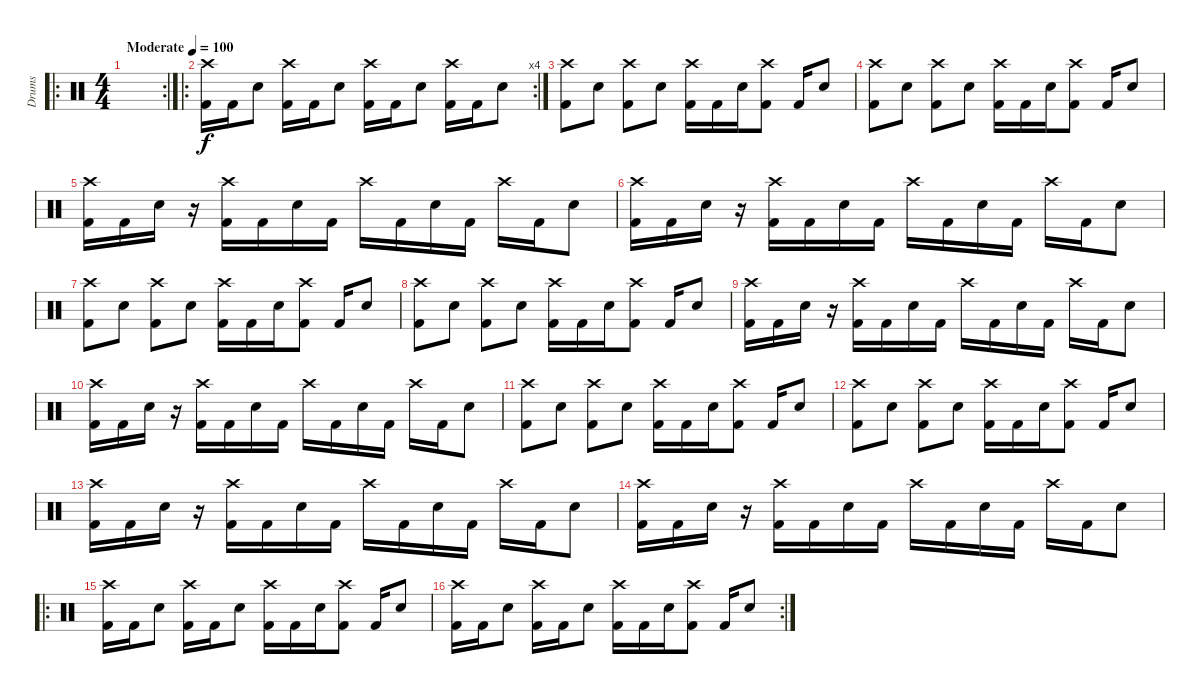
\track ("Drums" "Drums") {instrument percussion}
\staff {score}
\articulation defaults
\ro
\rc 2
\ts (4 4)
\tempo (100 "Moderate")
\clef neutral
\ks c
|
\ro
\rc 4
("Crash high (hit)" "Kick (hit) 2").16 "Kick (hit) 2".16 "Snare (hit) 2".8 ("Crash high (hit)" "Kick (hit) 2").16 "Kick (hit) 2".16 "Snare (hit) 2".8 ("Crash high (hit)" "Kick (hit) 2").16 "Kick (hit) 2".16 "Snare (hit) 2".8 ("Crash high (hit)" "Kick (hit) 2").16 "Kick (hit) 2".16 "Snare (hit) 2".8 |
("Crash high (hit)" "Kick (hit) 2").8 "Snare (hit) 2".8 ("Crash high (hit)" "Kick (hit) 2").8 "Snare (hit) 2".8 ("Crash high (hit)" "Kick (hit) 2").16 "Kick (hit) 2".16 "Snare (hit) 2".16 ("Crash high (hit)" "Kick (hit) 2").8 "Kick (hit) 2".16 "Snare (hit) 2".8 |
("Crash high (hit)" "Kick (hit) 2").8 "Snare (hit) 2".8 ("Crash high (hit)" "Kick (hit) 2").8 "Snare (hit) 2".8 ("Crash high (hit)" "Kick (hit) 2").16 "Kick (hit) 2".16 "Snare (hit) 2".16 ("Crash high (hit)" "Kick (hit) 2").8 "Kick (hit) 2".16 "Snare (hit) 2".8 |
("Crash high (hit)" "Kick (hit) 2").16 "Kick (hit) 2".16 "Snare (hit) 2".16 r.16 ("Crash high (hit)" "Kick (hit) 2").16 "Kick (hit) 2".16 "Snare (hit) 2".16 "Kick (hit) 2".16 "Crash high (hit)".16 "Kick (hit) 2".16 "Snare (hit) 2".16 "Kick (hit) 2".16 "Crash high (hit)".16 "Kick (hit) 2".16 "Snare (hit) 2".8 |
("Crash high (hit)" "Kick (hit) 2").16 "Kick (hit) 2".16 "Snare (hit) 2".16 r.16 ("Crash high (hit)" "Kick (hit) 2").16 "Kick (hit) 2".16 "Snare (hit) 2".16 "Kick (hit) 2".16 "Crash high (hit)".16 "Kick (hit) 2".16 "Snare (hit) 2".16 "Kick (hit) 2".16 "Crash high (hit)".16 "Kick (hit) 2".16 "Snare (hit) 2".8 |
("Crash high (hit)" "Kick (hit) 2").8 "Snare (hit) 2".8 ("Crash high (hit)" "Kick (hit) 2").8 "Snare (hit) 2".8 ("Crash high (hit)" "Kick (hit) 2").16 "Kick (hit) 2".16 "Snare (hit) 2".16 ("Crash high (hit)" "Kick (hit) 2").8 "Kick (hit) 2".16 "Snare (hit) 2".8 |
("Crash high (hit)" "Kick (hit) 2").8 "Snare (hit) 2".8 ("Crash high (hit)" "Kick (hit) 2").8 "Snare (hit) 2".8 ("Crash high (hit)" "Kick (hit) 2").16 "Kick (hit) 2".16 "Snare (hit) 2".16 ("Crash high (hit)" "Kick (hit) 2").8 "Kick (hit) 2".16 "Snare (hit) 2".8 |
("Crash high (hit)" "Kick (hit) 2").16 "Kick (hit) 2".16 "Snare (hit) 2".16 r.16 ("Crash high (hit)" "Kick (hit) 2").16 "Kick (hit) 2".16 "Snare (hit) 2".16 "Kick (hit) 2".16 "Crash high (hit)".16 "Kick (hit) 2".16 "Snare (hit) 2".16 "Kick (hit) 2".16 "Crash high (hit)".16 "Kick (hit) 2".16 "Snare (hit) 2".8 |
("Crash high (hit)" "Kick (hit) 2").16 "Kick (hit) 2".16 "Snare (hit) 2".16 r.16 ("Crash high (hit)" "Kick (hit) 2").16 "Kick (hit) 2".16 "Snare (hit) 2".16 "Kick (hit) 2".16 "Crash high (hit)".16 "Kick (hit) 2".16 "Snare (hit) 2".16 "Kick (hit) 2".16 "Crash high (hit)".16 "Kick (hit) 2".16 "Snare (hit) 2".8 |
("Crash high (hit)" "Kick (hit) 2").8 "Snare (hit) 2".8 ("Crash high (hit)" "Kick (hit) 2").8 "Snare (hit) 2".8 ("Crash high (hit)" "Kick (hit) 2").16 "Kick (hit) 2".16 "Snare (hit) 2".16 ("Crash high (hit)" "Kick (hit) 2").8 "Kick (hit) 2".16 "Snare (hit) 2".8 |
("Crash high (hit)" "Kick (hit) 2").8 "Snare (hit) 2".8 ("Crash high (hit)" "Kick (hit) 2").8 "Snare (hit) 2".8 ("Crash high (hit)" "Kick (hit) 2").16 "Kick (hit) 2".16 "Snare (hit) 2".16 ("Crash high (hit)" "Kick (hit) 2").8 "Kick (hit) 2".16 "Snare (hit) 2".8 |
("Crash high (hit)" "Kick (hit) 2").16 "Kick (hit) 2".16 "Snare (hit) 2".16 r.16 ("Crash high (hit)" "Kick (hit) 2").16 "Kick (hit) 2".16 "Snare (hit) 2".16 "Kick (hit) 2".16 "Crash high (hit)".16 "Kick (hit) 2".16 "Snare (hit) 2".16 "Kick (hit) 2".16 "Crash high (hit)".16 "Kick (hit) 2".16 "Snare (hit) 2".8 |
("Crash high (hit)" "Kick (hit) 2").16 "Kick (hit) 2".16 "Snare (hit) 2".16 r.16 ("Crash high (hit)" "Kick (hit) 2").16 "Kick (hit) 2".16 "Snare (hit) 2".16 "Kick (hit) 2".16 "Crash high (hit)".16 "Kick (hit) 2".16 "Snare (hit) 2".16 "Kick (hit) 2".16 "Crash high (hit)".16 "Kick (hit) 2".16 "Snare (hit) 2".8 |
\ro
("Crash high (hit)" "Kick (hit) 2").16 "Kick (hit) 2".16 "Snare (hit) 2".8 ("Crash high (hit)" "Kick (hit) 2").16 "Kick (hit) 2".16 "Snare (hit) 2".8 ("Crash high (hit)" "Kick (hit) 2").16 "Kick (hit) 2".16 "Snare (hit) 2".16 ("Crash high (hit)" "Kick (hit) 2").8 "Kick (hit) 2".16 "Snare (hit) 2".8 |
\rc 2
("Crash high (hit)" "Kick (hit) 2").16 "Kick (hit) 2".16 "Snare (hit) 2".8 ("Crash high (hit)" "Kick (hit) 2").16 "Kick (hit) 2".16 "Snare (hit) 2".8 ("Crash high (hit)" "Kick (hit) 2").16 "Kick (hit) 2".16 "Snare (hit) 2".16 ("Crash high (hit)" "Kick (hit) 2").8 "Kick (hit) 2".16 "Snare (hit) 2".8
